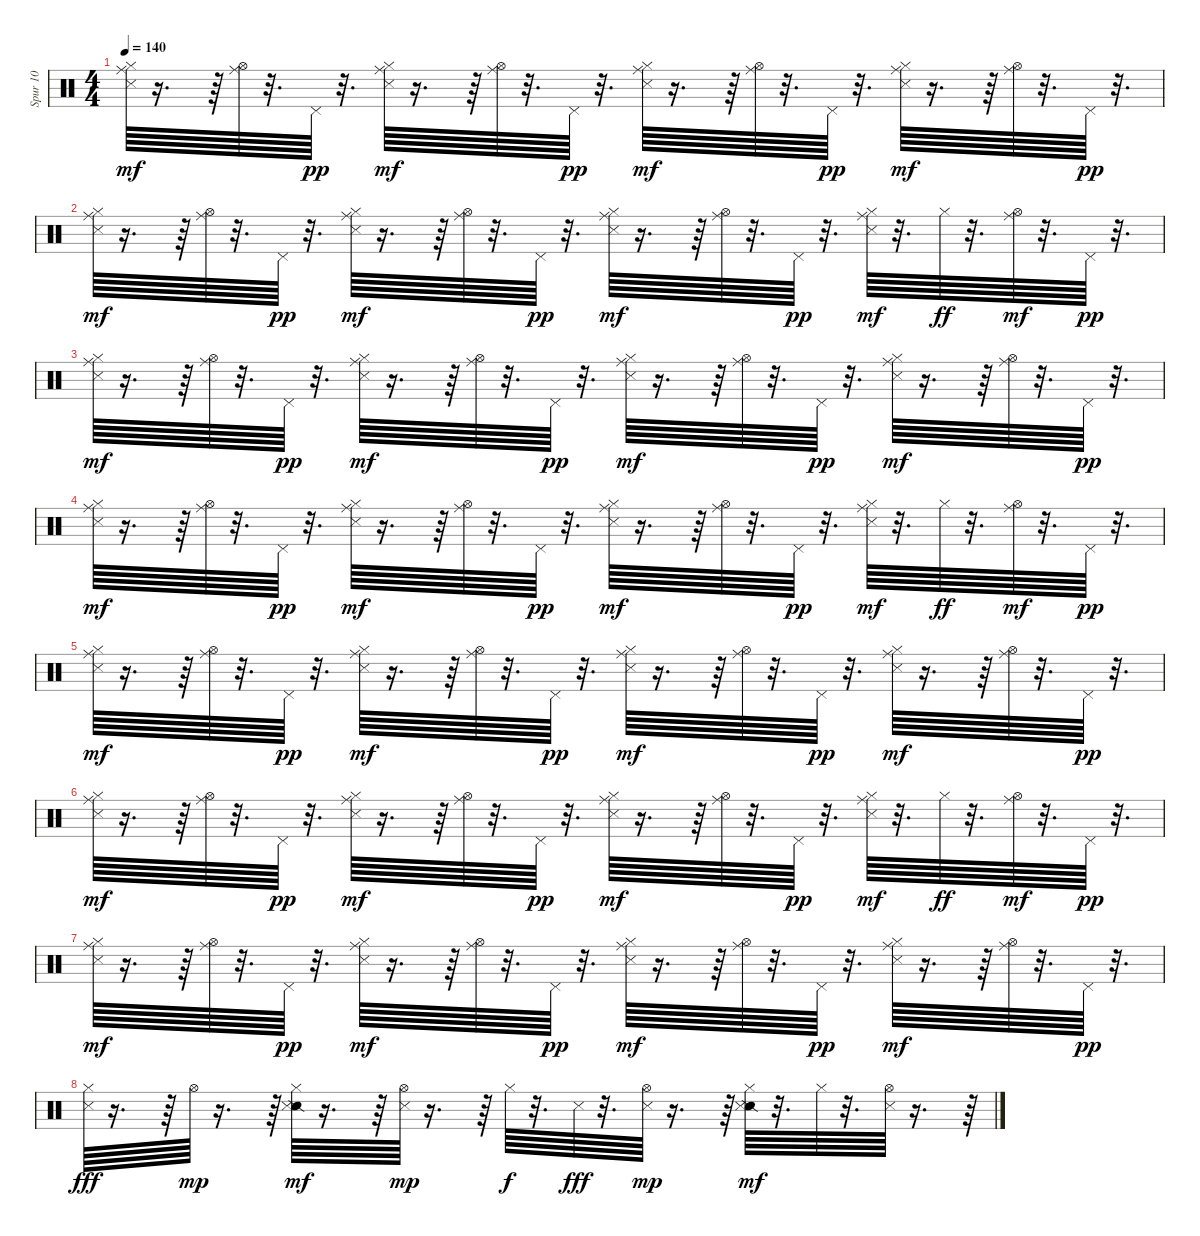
\track ("Spur 10" "Spur 10") {instrument percussion}
\staff {score}
\articulation defaults
\ts (4 4)
\tempo 140
\clef neutral
\ks c
("Metronome (hit)" "Hi-Hat (closed)" "Ride (middle)").64{dy mf} r.16{d} r.64 ("Hi-Hat (open)" "Ride (middle)").64 r.32{d} "Pedal Hi-Hat (hit)".64{dy pp} r.32{d} ("Metronome (hit)" "Hi-Hat (closed)" "Ride (middle)").64{dy mf} r.16{d} r.64 ("Hi-Hat (open)" "Ride (middle)").64 r.32{d} "Pedal Hi-Hat (hit)".64{dy pp} r.32{d} ("Metronome (hit)" "Hi-Hat (closed)" "Ride (middle)").64{dy mf} r.16{d} r.64 ("Hi-Hat (open)" "Ride (middle)").64 r.32{d} "Pedal Hi-Hat (hit)".64{dy pp} r.32{d} ("Metronome (hit)" "Hi-Hat (closed)" "Ride (middle)").64{dy mf} r.16{d} r.64 ("Hi-Hat (open)" "Ride (middle)").64 r.32{d} "Pedal Hi-Hat (hit)".64{dy pp} r.32{d} |
("Metronome (hit)" "Hi-Hat (closed)" "Ride (middle)").64{dy mf} r.16{d} r.64 ("Hi-Hat (open)" "Ride (middle)").64 r.32{d} "Pedal Hi-Hat (hit)".64{dy pp} r.32{d} ("Metronome (hit)" "Hi-Hat (closed)" "Ride (middle)").64{dy mf} r.16{d} r.64 ("Hi-Hat (open)" "Ride (middle)").64 r.32{d} "Pedal Hi-Hat (hit)".64{dy pp} r.32{d} ("Metronome (hit)" "Hi-Hat (closed)" "Ride (middle)").64{dy mf} r.16{d} r.64 ("Hi-Hat (open)" "Ride (middle)").64 r.32{d} "Pedal Hi-Hat (hit)".64{dy pp} r.32{d} ("Metronome (hit)" "Hi-Hat (closed)" "Ride (middle)").64{dy mf} r.32{d} "Hi-Hat (closed)".64{dy ff} r.32{d} ("Hi-Hat (open)" "Ride (middle)").64{dy mf} r.32{d} "Pedal Hi-Hat (hit)".64{dy pp} r.32{d} |
("Metronome (hit)" "Hi-Hat (closed)" "Ride (middle)").64{dy mf} r.16{d} r.64 ("Hi-Hat (open)" "Ride (middle)").64 r.32{d} "Pedal Hi-Hat (hit)".64{dy pp} r.32{d} ("Metronome (hit)" "Hi-Hat (closed)" "Ride (middle)").64{dy mf} r.16{d} r.64 ("Hi-Hat (open)" "Ride (middle)").64 r.32{d} "Pedal Hi-Hat (hit)".64{dy pp} r.32{d} ("Metronome (hit)" "Hi-Hat (closed)" "Ride (middle)").64{dy mf} r.16{d} r.64 ("Hi-Hat (open)" "Ride (middle)").64 r.32{d} "Pedal Hi-Hat (hit)".64{dy pp} r.32{d} ("Metronome (hit)" "Hi-Hat (closed)" "Ride (middle)").64{dy mf} r.16{d} r.64 ("Hi-Hat (open)" "Ride (middle)").64 r.32{d} "Pedal Hi-Hat (hit)".64{dy pp} r.32{d} |
("Metronome (hit)" "Hi-Hat (closed)" "Ride (middle)").64{dy mf} r.16{d} r.64 ("Hi-Hat (open)" "Ride (middle)").64 r.32{d} "Pedal Hi-Hat (hit)".64{dy pp} r.32{d} ("Metronome (hit)" "Hi-Hat (closed)" "Ride (middle)").64{dy mf} r.16{d} r.64 ("Hi-Hat (open)" "Ride (middle)").64 r.32{d} "Pedal Hi-Hat (hit)".64{dy pp} r.32{d} ("Metronome (hit)" "Hi-Hat (closed)" "Ride (middle)").64{dy mf} r.16{d} r.64 ("Hi-Hat (open)" "Ride (middle)").64 r.32{d} "Pedal Hi-Hat (hit)".64{dy pp} r.32{d} ("Metronome (hit)" "Hi-Hat (closed)" "Ride (middle)").64{dy mf} r.32{d} "Hi-Hat (closed)".64{dy ff} r.32{d} ("Hi-Hat (open)" "Ride (middle)").64{dy mf} r.32{d} "Pedal Hi-Hat (hit)".64{dy pp} r.32{d} |
("Metronome (hit)" "Hi-Hat (closed)" "Ride (middle)").64{dy mf} r.16{d} r.64 ("Hi-Hat (open)" "Ride (middle)").64 r.32{d} "Pedal Hi-Hat (hit)".64{dy pp} r.32{d} ("Metronome (hit)" "Hi-Hat (closed)" "Ride (middle)").64{dy mf} r.16{d} r.64 ("Hi-Hat (open)" "Ride (middle)").64 r.32{d} "Pedal Hi-Hat (hit)".64{dy pp} r.32{d} ("Metronome (hit)" "Hi-Hat (closed)" "Ride (middle)").64{dy mf} r.16{d} r.64 ("Hi-Hat (open)" "Ride (middle)").64 r.32{d} "Pedal Hi-Hat (hit)".64{dy pp} r.32{d} ("Metronome (hit)" "Hi-Hat (closed)" "Ride (middle)").64{dy mf} r.16{d} r.64 ("Hi-Hat (open)" "Ride (middle)").64 r.32{d} "Pedal Hi-Hat (hit)".64{dy pp} r.32{d} |
("Metronome (hit)" "Hi-Hat (closed)" "Ride (middle)").64{dy mf} r.16{d} r.64 ("Hi-Hat (open)" "Ride (middle)").64 r.32{d} "Pedal Hi-Hat (hit)".64{dy pp} r.32{d} ("Metronome (hit)" "Hi-Hat (closed)" "Ride (middle)").64{dy mf} r.16{d} r.64 ("Hi-Hat (open)" "Ride (middle)").64 r.32{d} "Pedal Hi-Hat (hit)".64{dy pp} r.32{d} ("Metronome (hit)" "Hi-Hat (closed)" "Ride (middle)").64{dy mf} r.16{d} r.64 ("Hi-Hat (open)" "Ride (middle)").64 r.32{d} "Pedal Hi-Hat (hit)".64{dy pp} r.32{d} ("Metronome (hit)" "Hi-Hat (closed)" "Ride (middle)").64{dy mf} r.32{d} "Hi-Hat (closed)".64{dy ff} r.32{d} ("Hi-Hat (open)" "Ride (middle)").64{dy mf} r.32{d} "Pedal Hi-Hat (hit)".64{dy pp} r.32{d} |
("Metronome (hit)" "Hi-Hat (closed)" "Ride (middle)").64{dy mf} r.16{d} r.64 ("Hi-Hat (open)" "Ride (middle)").64 r.32{d} "Pedal Hi-Hat (hit)".64{dy pp} r.32{d} ("Metronome (hit)" "Hi-Hat (closed)" "Ride (middle)").64{dy mf} r.16{d} r.64 ("Hi-Hat (open)" "Ride (middle)").64 r.32{d} "Pedal Hi-Hat (hit)".64{dy pp} r.32{d} ("Metronome (hit)" "Hi-Hat (closed)" "Ride (middle)").64{dy mf} r.16{d} r.64 ("Hi-Hat (open)" "Ride (middle)").64 r.32{d} "Pedal Hi-Hat (hit)".64{dy pp} r.32{d} ("Metronome (hit)" "Hi-Hat (closed)" "Ride (middle)").64{dy mf} r.16{d} r.64 ("Hi-Hat (open)" "Ride (middle)").64 r.32{d} "Pedal Hi-Hat (hit)".64{dy pp} r.32{d} |
("Metronome (hit)" "Hi-Hat (closed)").64{dy fff} r.16{d} r.64 "Hi-Hat (open)".64{dy mp} r.16{d} r.64 ("Snare (side stick) 2" "Metronome (hit)" "Hi-Hat (closed)").64{dy mf} r.16{d} r.64 ("Metronome (hit)" "Hi-Hat (open)").64{dy mp} r.16{d} r.64 "Hi-Hat (closed)".64{dy f} r.32{d} "Metronome (hit)".64{dy fff} r.32{d} ("Metronome (hit)" "Hi-Hat (open)").64{dy mp} r.16{d} r.64 ("Snare (side stick) 2" "Metronome (hit)" "Hi-Hat (closed)").64{dy mf} r.32{d} "Hi-Hat (closed)".64 r.32{d} ("Metronome (hit)" "Hi-Hat (open)").64 r.16{d} r.64
